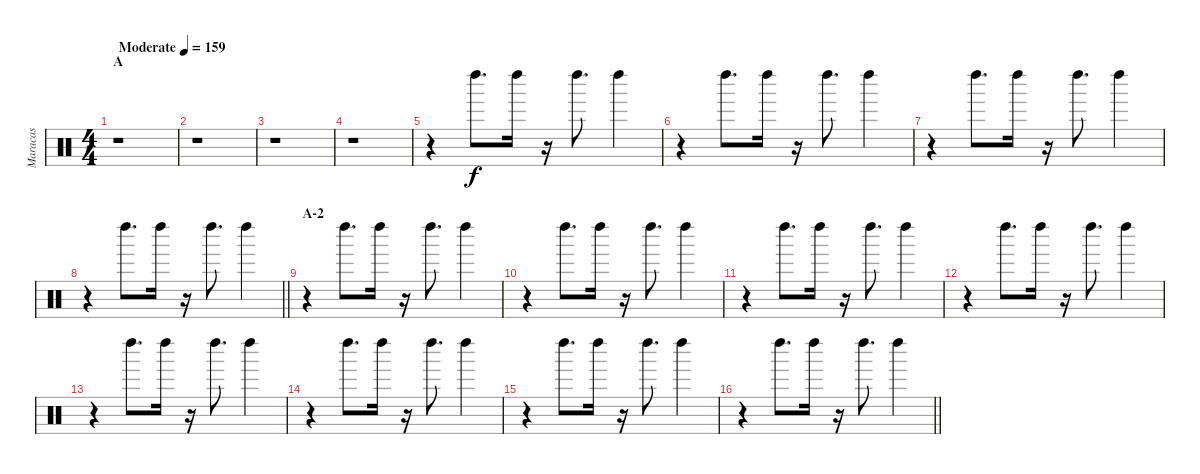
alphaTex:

\track ("Maracas" "Maracas") {instrument percussion}
\staff {score}
\articulation defaults
\ts (4 4)
\section ("" "A")
\tempo (159 "Moderate")
\clef neutral
\ks c
r.1{dy f} |
r.1 |
r.1 |
r.1 |
r.4 "Left Maraca (hit)".8{d} "Left Maraca (hit)".16 r.16 "Left Maraca (hit)".8{d} "Left Maraca (hit)".4 |
r.4 "Left Maraca (hit)".8{d} "Left Maraca (hit)".16 r.16 "Left Maraca (hit)".8{d} "Left Maraca (hit)".4 |
r.4 "Left Maraca (hit)".8{d} "Left Maraca (hit)".16 r.16 "Left Maraca (hit)".8{d} "Left Maraca (hit)".4 |
\barLineRight lightlight
r.4 "Left Maraca (hit)".8{d} "Left Maraca (hit)".16 r.16 "Left Maraca (hit)".8{d} "Left Maraca (hit)".4 |
\section ("" "A-2")
r.4 "Left Maraca (hit)".8{d} "Left Maraca (hit)".16 r.16 "Left Maraca (hit)".8{d} "Left Maraca (hit)".4 |
r.4 "Left Maraca (hit)".8{d} "Left Maraca (hit)".16 r.16 "Left Maraca (hit)".8{d} "Left Maraca (hit)".4 |
r.4 "Left Maraca (hit)".8{d} "Left Maraca (hit)".16 r.16 "Left Maraca (hit)".8{d} "Left Maraca (hit)".4 |
r.4 "Left Maraca (hit)".8{d} "Left Maraca (hit)".16 r.16 "Left Maraca (hit)".8{d} "Left Maraca (hit)".4 |
r.4 "Left Maraca (hit)".8{d} "Left Maraca (hit)".16 r.16 "Left Maraca (hit)".8{d} "Left Maraca (hit)".4 |
r.4 "Left Maraca (hit)".8{d} "Left Maraca (hit)".16 r.16 "Left Maraca (hit)".8{d} "Left Maraca (hit)".4 |
r.4 "Left Maraca (hit)".8{d} "Left Maraca (hit)".16 r.16 "Left Maraca (hit)".8{d} "Left Maraca (hit)".4 |
\barLineRight lightlight
r.4 "Left Maraca (hit)".8{d} "Left Maraca (hit)".16 r.16 "Left Maraca (hit)".8{d} "Left Maraca (hit)".4
